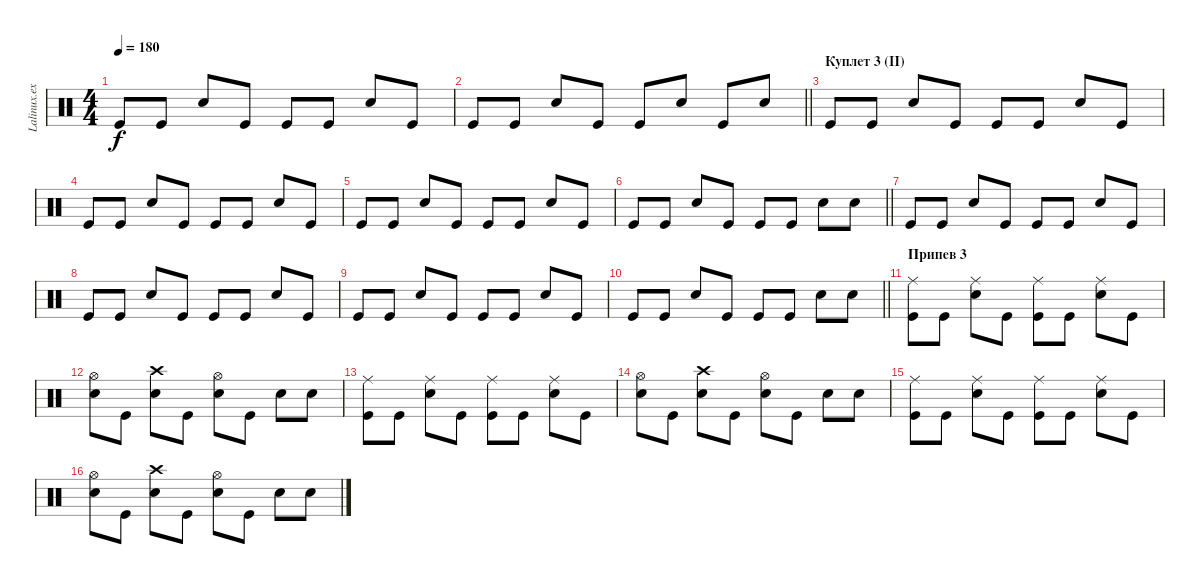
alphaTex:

\track ("Lalinux.exe" "Lalinux.ex") {instrument percussion}
\staff {score}
\articulation defaults
\ts (4 4)
\tempo 180
\clef neutral
\ks c "Kick (hit)".8{dy f} "Kick (hit)".8 "Electric Snare (hit)".8 "Kick (hit)".8 "Kick (hit)".8 "Kick (hit)".8 "Electric Snare (hit)".8 "Kick (hit)".8
|
\barLineRight lightlight "Kick (hit)".8 "Kick (hit)".8 "Electric Snare (hit)".8 "Kick (hit)".8 "Kick (hit)".8 "Electric Snare (hit)".8 "Kick (hit)".8 "Electric Snare (hit)".8
|
\section ("" "Куплет 3 (II)")
"Kick (hit)".8 "Kick (hit)".8 "Electric Snare (hit)".8 "Kick (hit)".8 "Kick (hit)".8 "Kick (hit)".8 "Electric Snare (hit)".8 "Kick (hit)".8 |
"Kick (hit)".8 "Kick (hit)".8 "Electric Snare (hit)".8 "Kick (hit)".8 "Kick (hit)".8 "Kick (hit)".8 "Electric Snare (hit)".8 "Kick (hit)".8 |
"Kick (hit)".8 "Kick (hit)".8 "Electric Snare (hit)".8 "Kick (hit)".8 "Kick (hit)".8 "Kick (hit)".8 "Electric Snare (hit)".8 "Kick (hit)".8 |
\barLineRight lightlight "Kick (hit)".8 "Kick (hit)".8 "Electric Snare (hit)".8 "Kick (hit)".8 "Kick (hit)".8 "Kick (hit)".8 "Electric Snare (hit)".8 "Electric Snare (hit)".8
|
"Kick (hit)".8 "Kick (hit)".8 "Electric Snare (hit)".8 "Kick (hit)".8 "Kick (hit)".8 "Kick (hit)".8 "Electric Snare (hit)".8 "Kick (hit)".8 |
"Kick (hit)".8 "Kick (hit)".8 "Electric Snare (hit)".8 "Kick (hit)".8 "Kick (hit)".8 "Kick (hit)".8 "Electric Snare (hit)".8 "Kick (hit)".8 |
"Kick (hit)".8 "Kick (hit)".8 "Electric Snare (hit)".8 "Kick (hit)".8 "Kick (hit)".8 "Kick (hit)".8 "Electric Snare (hit)".8 "Kick (hit)".8 |
\barLineRight lightlight "Kick (hit)".8 "Kick (hit)".8 "Electric Snare (hit)".8 "Kick (hit)".8 "Kick (hit)".8 "Kick (hit)".8 "Electric Snare (hit)".8 "Electric Snare (hit)".8
|
\section ("" "Припев 3")
("Ride (middle)" "Kick (hit)").8 "Kick (hit)".8 ("Ride (middle)" "Electric Snare (hit)").8 "Kick (hit)".8 ("Ride (middle)" "Kick (hit)").8 "Kick (hit)".8 ("Ride (middle)" "Electric Snare (hit)").8 "Kick (hit)".8 |
("Hi-Hat (open)" "Electric Snare (hit)").8 "Kick (hit)".8 ("Crash high (hit)" "Electric Snare (hit)").8 "Kick (hit)".8 ("Hi-Hat (open)" "Electric Snare (hit)").8 "Kick (hit)".8 "Electric Snare (hit)".8 "Electric Snare (hit)".8 |
("Ride (middle)" "Kick (hit)").8 "Kick (hit)".8 ("Ride (middle)" "Electric Snare (hit)").8 "Kick (hit)".8 ("Ride (middle)" "Kick (hit)").8 "Kick (hit)".8 ("Ride (middle)" "Electric Snare (hit)").8 "Kick (hit)".8 |
("Hi-Hat (open)" "Electric Snare (hit)").8 "Kick (hit)".8 ("Crash high (hit)" "Electric Snare (hit)").8 "Kick (hit)".8 ("Hi-Hat (open)" "Electric Snare (hit)").8 "Kick (hit)".8 "Electric Snare (hit)".8 "Electric Snare (hit)".8 |
("Ride (middle)" "Kick (hit)").8 "Kick (hit)".8 ("Ride (middle)" "Electric Snare (hit)").8 "Kick (hit)".8 ("Ride (middle)" "Kick (hit)").8 "Kick (hit)".8 ("Ride (middle)" "Electric Snare (hit)").8 "Kick (hit)".8 |
("Hi-Hat (open)" "Electric Snare (hit)").8 "Kick (hit)".8 ("Crash high (hit)" "Electric Snare (hit)").8 "Kick (hit)".8 ("Hi-Hat (open)" "Electric Snare (hit)").8 "Kick (hit)".8 "Electric Snare (hit)".8 "Electric Snare (hit)".8
